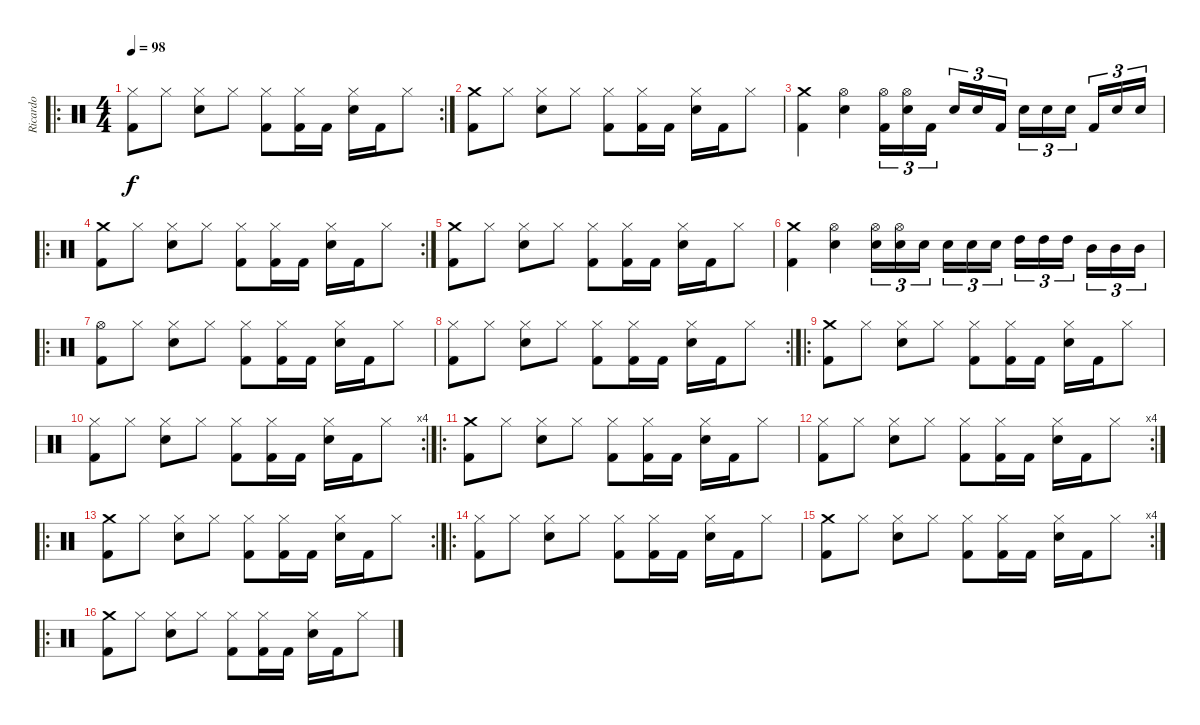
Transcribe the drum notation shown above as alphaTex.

\track ("Ricardo" "Ricardo") {instrument percussion}
\staff {score}
\articulation defaults
\ro
\rc 2
\ts (4 4)
\tempo 98
\clef neutral
\ks c
("Kick (hit) 2" "Hi-Hat (closed)").8{dy f} "Hi-Hat (closed)".8 ("Hi-Hat (closed)" "Snare (hit) 2").8 "Hi-Hat (closed)".8 ("Kick (hit) 2" "Hi-Hat (closed)").8 ("Kick (hit) 2" "Hi-Hat (closed)").16 "Kick (hit) 2".16 ("Hi-Hat (closed)" "Snare (hit) 2").16 "Kick (hit) 2".16 "Hi-Hat (closed)".8 |
("Kick (hit) 2" "Crash medium (hit)").8 "Hi-Hat (closed)".8 ("Hi-Hat (closed)" "Snare (hit) 2").8 "Hi-Hat (closed)".8 ("Kick (hit) 2" "Hi-Hat (closed)").8 ("Kick (hit) 2" "Hi-Hat (closed)").16 "Kick (hit) 2".16 ("Hi-Hat (closed)" "Snare (hit) 2").16 "Kick (hit) 2".16 "Hi-Hat (closed)".8 |
("Crash medium (hit)" "Kick (hit) 2").4 ("Hi-Hat (open)" "Snare (hit) 2").4 ("Hi-Hat (open)" "Kick (hit) 2").16{tu (3 2)} ("Hi-Hat (open)" "Snare (hit) 2").16{tu (3 2)} "Kick (hit) 2".16{tu (3 2)} "Snare (hit) 2".16{tu (3 2)} "Snare (hit) 2".16{tu (3 2)} "Kick (hit) 2".16{tu (3 2)} "Snare (hit) 2".16{tu (3 2)} "Snare (hit) 2".16{tu (3 2)} "Snare (hit) 2".16{tu (3 2)} "Kick (hit) 2".16{tu (3 2)} "Snare (hit) 2".16{tu (3 2)} "Snare (hit) 2".16{tu (3 2)} |
\ro
\rc 2
("Kick (hit) 2" "Crash medium (hit)").8 "Hi-Hat (closed)".8 ("Hi-Hat (closed)" "Snare (hit) 2").8 "Hi-Hat (closed)".8 ("Kick (hit) 2" "Hi-Hat (closed)").8 ("Kick (hit) 2" "Hi-Hat (closed)").16 "Kick (hit) 2".16 ("Hi-Hat (closed)" "Snare (hit) 2").16 "Kick (hit) 2".16 "Hi-Hat (closed)".8 |
("Kick (hit) 2" "Crash medium (hit)").8 "Hi-Hat (closed)".8 ("Hi-Hat (closed)" "Snare (hit) 2").8 "Hi-Hat (closed)".8 ("Kick (hit) 2" "Hi-Hat (closed)").8 ("Kick (hit) 2" "Hi-Hat (closed)").16 "Kick (hit) 2".16 ("Hi-Hat (closed)" "Snare (hit) 2").16 "Kick (hit) 2".16 "Hi-Hat (closed)".8 |
("Crash medium (hit)" "Kick (hit) 2").4 ("Hi-Hat (open)" "Snare (hit) 2").4 ("Hi-Hat (open)" "Snare (hit) 2").16{tu (3 2)} ("Hi-Hat (open)" "Snare (hit) 2").16{tu (3 2)} "Snare (hit) 2".16{tu (3 2)} "Snare (hit) 2".16{tu (3 2)} "Snare (hit) 2".16{tu (3 2)} "Snare (hit) 2".16{tu (3 2)} "High Tom (hit)".16{tu (3 2)} "High Tom (hit)".16{tu (3 2)} "High Tom (hit)".16{tu (3 2)} "Mid Tom (hit)".16{tu (3 2)} "Mid Tom (hit)".16{tu (3 2)} "Mid Tom (hit)".16{tu (3 2)} |
\ro
("Kick (hit) 2" "Hi-Hat (open)").8 "Hi-Hat (closed)".8 ("Hi-Hat (closed)" "Snare (hit) 2").8 "Hi-Hat (closed)".8 ("Kick (hit) 2" "Hi-Hat (closed)").8 ("Kick (hit) 2" "Hi-Hat (closed)").16 "Kick (hit) 2".16 ("Hi-Hat (closed)" "Snare (hit) 2").16 "Kick (hit) 2".16 "Hi-Hat (closed)".8 |
\rc 2
("Kick (hit) 2" "Hi-Hat (closed)").8 "Hi-Hat (closed)".8 ("Hi-Hat (closed)" "Snare (hit) 2").8 "Hi-Hat (closed)".8 ("Kick (hit) 2" "Hi-Hat (closed)").8 ("Kick (hit) 2" "Hi-Hat (closed)").16 "Kick (hit) 2".16 ("Hi-Hat (closed)" "Snare (hit) 2").16 "Kick (hit) 2".16 "Hi-Hat (closed)".8 |
\ro
("Kick (hit) 2" "Crash medium (hit)").8 "Hi-Hat (closed)".8 ("Hi-Hat (closed)" "Snare (hit) 2").8 "Hi-Hat (closed)".8 ("Kick (hit) 2" "Hi-Hat (closed)").8 ("Kick (hit) 2" "Hi-Hat (closed)").16 "Kick (hit) 2".16 ("Hi-Hat (closed)" "Snare (hit) 2").16 "Kick (hit) 2".16 "Hi-Hat (closed)".8 |
\rc 4
("Kick (hit) 2" "Hi-Hat (closed)").8 "Hi-Hat (closed)".8 ("Hi-Hat (closed)" "Snare (hit) 2").8 "Hi-Hat (closed)".8 ("Kick (hit) 2" "Hi-Hat (closed)").8 ("Kick (hit) 2" "Hi-Hat (closed)").16 "Kick (hit) 2".16 ("Hi-Hat (closed)" "Snare (hit) 2").16 "Kick (hit) 2".16 "Hi-Hat (closed)".8 |
\ro
("Kick (hit) 2" "Crash medium (hit)").8 "Hi-Hat (closed)".8 ("Hi-Hat (closed)" "Snare (hit) 2").8 "Hi-Hat (closed)".8 ("Kick (hit) 2" "Hi-Hat (closed)").8 ("Kick (hit) 2" "Hi-Hat (closed)").16 "Kick (hit) 2".16 ("Hi-Hat (closed)" "Snare (hit) 2").16 "Kick (hit) 2".16 "Hi-Hat (closed)".8 |
\rc 4
("Kick (hit) 2" "Hi-Hat (closed)").8 "Hi-Hat (closed)".8 ("Hi-Hat (closed)" "Snare (hit) 2").8 "Hi-Hat (closed)".8 ("Kick (hit) 2" "Hi-Hat (closed)").8 ("Kick (hit) 2" "Hi-Hat (closed)").16 "Kick (hit) 2".16 ("Hi-Hat (closed)" "Snare (hit) 2").16 "Kick (hit) 2".16 "Hi-Hat (closed)".8 |
\ro
\rc 2
("Kick (hit) 2" "Crash medium (hit)").8 "Hi-Hat (closed)".8 ("Hi-Hat (closed)" "Snare (hit) 2").8 "Hi-Hat (closed)".8 ("Kick (hit) 2" "Hi-Hat (closed)").8 ("Kick (hit) 2" "Hi-Hat (closed)").16 "Kick (hit) 2".16 ("Hi-Hat (closed)" "Snare (hit) 2").16 "Kick (hit) 2".16 "Hi-Hat (closed)".8 |
\ro
("Kick (hit) 2" "Hi-Hat (closed)").8 "Hi-Hat (closed)".8 ("Hi-Hat (closed)" "Snare (hit) 2").8 "Hi-Hat (closed)".8 ("Kick (hit) 2" "Hi-Hat (closed)").8 ("Kick (hit) 2" "Hi-Hat (closed)").16 "Kick (hit) 2".16 ("Hi-Hat (closed)" "Snare (hit) 2").16 "Kick (hit) 2".16 "Hi-Hat (closed)".8 |
\rc 4
("Kick (hit) 2" "Crash medium (hit)").8 "Hi-Hat (closed)".8 ("Hi-Hat (closed)" "Snare (hit) 2").8 "Hi-Hat (closed)".8 ("Kick (hit) 2" "Hi-Hat (closed)").8 ("Kick (hit) 2" "Hi-Hat (closed)").16 "Kick (hit) 2".16 ("Hi-Hat (closed)" "Snare (hit) 2").16 "Kick (hit) 2".16 "Hi-Hat (closed)".8 |
\ro
("Kick (hit) 2" "Crash medium (hit)").8 "Hi-Hat (closed)".8 ("Hi-Hat (closed)" "Snare (hit) 2").8 "Hi-Hat (closed)".8 ("Kick (hit) 2" "Hi-Hat (closed)").8 ("Kick (hit) 2" "Hi-Hat (closed)").16 "Kick (hit) 2".16 ("Hi-Hat (closed)" "Snare (hit) 2").16 "Kick (hit) 2".16 "Hi-Hat (closed)".8
